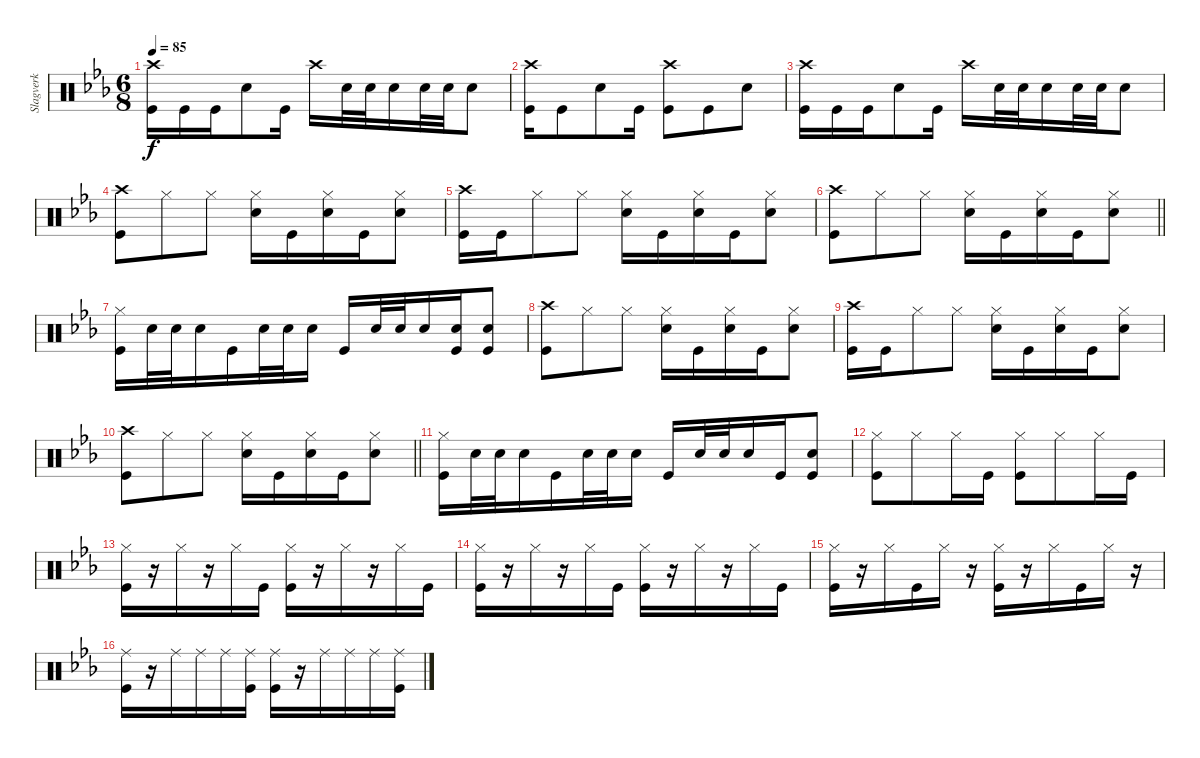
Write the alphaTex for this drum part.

\track ("Slagverk" "Slagverk") {instrument percussion}
\staff {score}
\articulation defaults
\ts (6 8)
\tempo 85
\clef neutral
\ks eb
("Crash high (hit)" "Kick (hit)").16{dy f} "Kick (hit)".16 "Kick (hit)".16 "Snare (hit) 2".8 "Kick (hit)".16 "Crash high (hit)".16 "Snare (hit) 2".32 "Snare (hit) 2".32 "Snare (hit) 2".16 "Snare (hit) 2".32 "Snare (hit) 2".32 "Snare (hit) 2".8 |
("Crash high (hit)" "Kick (hit)").16 "Kick (hit)".8 "Snare (hit) 2".8 "Kick (hit)".16 ("Crash high (hit)" "Kick (hit)").8 "Kick (hit)".8 "Snare (hit) 2".8 |
("Crash high (hit)" "Kick (hit)").16 "Kick (hit)".16 "Kick (hit)".16 "Snare (hit) 2".8 "Kick (hit)".16 "Crash high (hit)".16 "Snare (hit) 2".32 "Snare (hit) 2".32 "Snare (hit) 2".16 "Snare (hit) 2".32 "Snare (hit) 2".32 "Snare (hit) 2".8 |
("Crash high (hit)" "Kick (hit)").8 "Hi-Hat (closed)".8 "Hi-Hat (closed)".8 ("Hi-Hat (closed)" "Snare (hit) 2").16 "Kick (hit)".16 ("Hi-Hat (closed)" "Snare (hit) 2").16 "Kick (hit)".16 ("Hi-Hat (closed)" "Snare (hit) 2").8 |
("Crash high (hit)" "Kick (hit)").16 "Kick (hit)".16 "Hi-Hat (closed)".8 "Hi-Hat (closed)".8 ("Hi-Hat (closed)" "Snare (hit) 2").16 "Kick (hit)".16 ("Hi-Hat (closed)" "Snare (hit) 2").16 "Kick (hit)".16 ("Hi-Hat (closed)" "Snare (hit) 2").8 |
\barLineRight lightlight
("Crash high (hit)" "Kick (hit)").8 "Hi-Hat (closed)".8 "Hi-Hat (closed)".8 ("Hi-Hat (closed)" "Snare (hit) 2").16 "Kick (hit)".16 ("Hi-Hat (closed)" "Snare (hit) 2").16 "Kick (hit)".16 ("Hi-Hat (closed)" "Snare (hit) 2").8 |
\section ("" "")
("Hi-Hat (closed)" "Kick (hit)").16 "Snare (hit) 2".32 "Snare (hit) 2".32 "Snare (hit) 2".16 "Kick (hit)".16 "Snare (hit) 2".32 "Snare (hit) 2".32 "Snare (hit) 2".16 "Kick (hit)".16 "Snare (hit) 2".32 "Snare (hit) 2".32 "Snare (hit) 2".16 ("Snare (hit) 2" "Kick (hit)").16 ("Snare (hit) 2" "Kick (hit)").8 |
("Crash high (hit)" "Kick (hit)").8 "Hi-Hat (closed)".8 "Hi-Hat (closed)".8 ("Hi-Hat (closed)" "Snare (hit) 2").16 "Kick (hit)".16 ("Hi-Hat (closed)" "Snare (hit) 2").16 "Kick (hit)".16 ("Hi-Hat (closed)" "Snare (hit) 2").8 |
("Crash high (hit)" "Kick (hit)").16 "Kick (hit)".16 "Hi-Hat (closed)".8 "Hi-Hat (closed)".8 ("Hi-Hat (closed)" "Snare (hit) 2").16 "Kick (hit)".16 ("Hi-Hat (closed)" "Snare (hit) 2").16 "Kick (hit)".16 ("Hi-Hat (closed)" "Snare (hit) 2").8 |
\barLineRight lightlight
("Crash high (hit)" "Kick (hit)").8 "Hi-Hat (closed)".8 "Hi-Hat (closed)".8 ("Hi-Hat (closed)" "Snare (hit) 2").16 "Kick (hit)".16 ("Hi-Hat (closed)" "Snare (hit) 2").16 "Kick (hit)".16 ("Hi-Hat (closed)" "Snare (hit) 2").8 |
("Hi-Hat (closed)" "Kick (hit)").16 "Snare (hit) 2".32 "Snare (hit) 2".32 "Snare (hit) 2".16 "Kick (hit)".16 "Snare (hit) 2".32 "Snare (hit) 2".32 "Snare (hit) 2".16 "Kick (hit)".16 "Snare (hit) 2".32 "Snare (hit) 2".32 "Snare (hit) 2".16 "Kick (hit)".16 ("Snare (hit) 2" "Kick (hit)").8 |
("Hi-Hat (closed)" "Kick (hit)").8 "Hi-Hat (closed)".8 "Hi-Hat (closed)".16 "Kick (hit)".16 ("Hi-Hat (closed)" "Kick (hit)").8 "Hi-Hat (closed)".8 "Hi-Hat (closed)".16 "Kick (hit)".16 |
("Hi-Hat (closed)" "Kick (hit)").16 r.16 "Hi-Hat (closed)".16 r.16 "Hi-Hat (closed)".16 "Kick (hit)".16 ("Hi-Hat (closed)" "Kick (hit)").16 r.16 "Hi-Hat (closed)".16 r.16 "Hi-Hat (closed)".16 "Kick (hit)".16 |
("Hi-Hat (closed)" "Kick (hit)").16 r.16 "Hi-Hat (closed)".16 r.16 "Hi-Hat (closed)".16 "Kick (hit)".16 ("Hi-Hat (closed)" "Kick (hit)").16 r.16 "Hi-Hat (closed)".16 r.16 "Hi-Hat (closed)".16 "Kick (hit)".16 |
("Hi-Hat (closed)" "Kick (hit)").16 r.16 "Hi-Hat (closed)".16 "Kick (hit)".16 "Hi-Hat (closed)".16 r.16 ("Hi-Hat (closed)" "Kick (hit)").16 r.16 "Hi-Hat (closed)".16 "Kick (hit)".16 "Hi-Hat (closed)".16 r.16 |
("Ride (middle)" "Kick (hit)").16 r.16 "Ride (middle)".16 "Ride (middle)".16 "Ride (middle)".16 ("Ride (middle)" "Kick (hit)").16 ("Ride (middle)" "Kick (hit)").16 r.16 "Ride (middle)".16 "Ride (middle)".16 "Ride (middle)".16 ("Ride (middle)" "Kick (hit)").16
